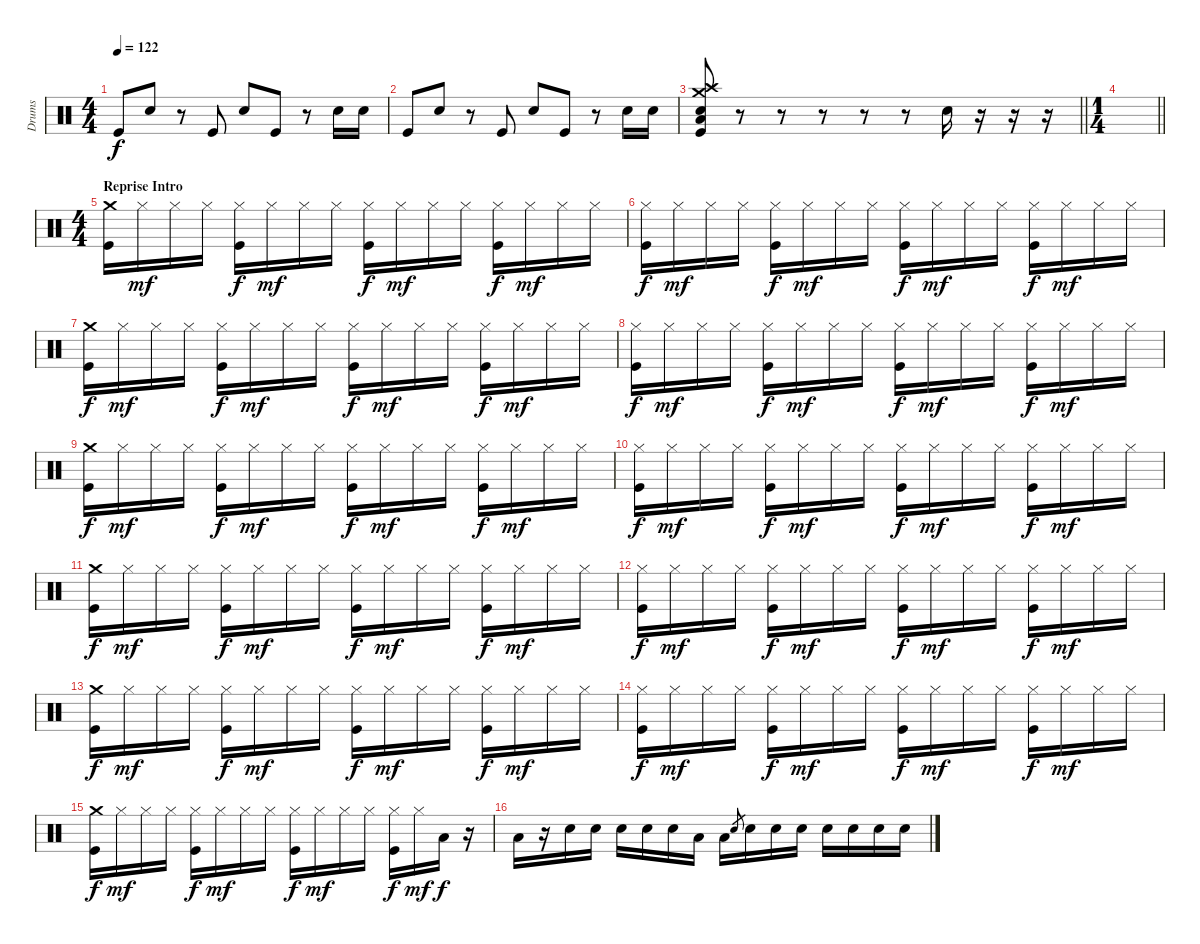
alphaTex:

\track ("Drums" "Drums") {instrument percussion}
\staff {score}
\articulation defaults
\ts (4 4)
\tempo 122
\clef neutral
\ks c "Kick (hit)".8{dy f} "Snare (hit) 2".8
r.8 "Kick (hit)".8 "Snare (hit) 2".8 "Kick (hit)".8 r.8 "Snare (hit) 2".16 "Snare (hit) 2".16 |
"Kick (hit)".8 "Snare (hit) 2".8 r.8 "Kick (hit)".8 "Snare (hit) 2".8 "Kick (hit)".8 r.8 "Snare (hit) 2".16 "Snare (hit) 2".16 |
\barLineRight lightlight
("Crash high (hit)" "Crash medium (hit)" "Snare (hit) 2" "Low Tom (hit)" "Kick (hit)").8 r.8 r.8 r.8 r.8 r.8 "Snare (hit) 2".16 r.16 r.16 r.16 |
\ts (1 4)
\barLineRight lightlight
|
\ts (4 4)
\section ("" "Reprise Intro")
("Crash medium (hit)" "Kick (hit)").16 "Hi-Hat (closed)".16{dy mf} "Hi-Hat (closed)".16 "Hi-Hat (closed)".16 ("Hi-Hat (closed)" "Kick (hit)").16{dy f} "Hi-Hat (closed)".16{dy mf} "Hi-Hat (closed)".16 "Hi-Hat (closed)".16 ("Hi-Hat (closed)" "Kick (hit)").16{dy f} "Hi-Hat (closed)".16{dy mf} "Hi-Hat (closed)".16 "Hi-Hat (closed)".16 ("Hi-Hat (closed)" "Kick (hit)").16{dy f} "Hi-Hat (closed)".16{dy mf} "Hi-Hat (closed)".16 "Hi-Hat (closed)".16 |
("Hi-Hat (closed)" "Kick (hit)").16{dy f} "Hi-Hat (closed)".16{dy mf} "Hi-Hat (closed)".16 "Hi-Hat (closed)".16 ("Hi-Hat (closed)" "Kick (hit)").16{dy f} "Hi-Hat (closed)".16{dy mf} "Hi-Hat (closed)".16 "Hi-Hat (closed)".16 ("Hi-Hat (closed)" "Kick (hit)").16{dy f} "Hi-Hat (closed)".16{dy mf} "Hi-Hat (closed)".16 "Hi-Hat (closed)".16 ("Hi-Hat (closed)" "Kick (hit)").16{dy f} "Hi-Hat (closed)".16{dy mf} "Hi-Hat (closed)".16 "Hi-Hat (closed)".16 |
("Crash medium (hit)" "Kick (hit)").16{dy f} "Hi-Hat (closed)".16{dy mf} "Hi-Hat (closed)".16 "Hi-Hat (closed)".16 ("Hi-Hat (closed)" "Kick (hit)").16{dy f} "Hi-Hat (closed)".16{dy mf} "Hi-Hat (closed)".16 "Hi-Hat (closed)".16 ("Hi-Hat (closed)" "Kick (hit)").16{dy f} "Hi-Hat (closed)".16{dy mf} "Hi-Hat (closed)".16 "Hi-Hat (closed)".16 ("Hi-Hat (closed)" "Kick (hit)").16{dy f} "Hi-Hat (closed)".16{dy mf} "Hi-Hat (closed)".16 "Hi-Hat (closed)".16 |
("Hi-Hat (closed)" "Kick (hit)").16{dy f} "Hi-Hat (closed)".16{dy mf} "Hi-Hat (closed)".16 "Hi-Hat (closed)".16 ("Hi-Hat (closed)" "Kick (hit)").16{dy f} "Hi-Hat (closed)".16{dy mf} "Hi-Hat (closed)".16 "Hi-Hat (closed)".16 ("Hi-Hat (closed)" "Kick (hit)").16{dy f} "Hi-Hat (closed)".16{dy mf} "Hi-Hat (closed)".16 "Hi-Hat (closed)".16 ("Hi-Hat (closed)" "Kick (hit)").16{dy f} "Hi-Hat (closed)".16{dy mf} "Hi-Hat (closed)".16 "Hi-Hat (closed)".16 |
("Crash medium (hit)" "Kick (hit)").16{dy f} "Hi-Hat (closed)".16{dy mf} "Hi-Hat (closed)".16 "Hi-Hat (closed)".16 ("Hi-Hat (closed)" "Kick (hit)").16{dy f} "Hi-Hat (closed)".16{dy mf} "Hi-Hat (closed)".16 "Hi-Hat (closed)".16 ("Hi-Hat (closed)" "Kick (hit)").16{dy f} "Hi-Hat (closed)".16{dy mf} "Hi-Hat (closed)".16 "Hi-Hat (closed)".16 ("Hi-Hat (closed)" "Kick (hit)").16{dy f} "Hi-Hat (closed)".16{dy mf} "Hi-Hat (closed)".16 "Hi-Hat (closed)".16 |
("Hi-Hat (closed)" "Kick (hit)").16{dy f} "Hi-Hat (closed)".16{dy mf} "Hi-Hat (closed)".16 "Hi-Hat (closed)".16 ("Hi-Hat (closed)" "Kick (hit)").16{dy f} "Hi-Hat (closed)".16{dy mf} "Hi-Hat (closed)".16 "Hi-Hat (closed)".16 ("Hi-Hat (closed)" "Kick (hit)").16{dy f} "Hi-Hat (closed)".16{dy mf} "Hi-Hat (closed)".16 "Hi-Hat (closed)".16 ("Hi-Hat (closed)" "Kick (hit)").16{dy f} "Hi-Hat (closed)".16{dy mf} "Hi-Hat (closed)".16 "Hi-Hat (closed)".16 |
("Crash medium (hit)" "Kick (hit)").16{dy f} "Hi-Hat (closed)".16{dy mf} "Hi-Hat (closed)".16 "Hi-Hat (closed)".16 ("Hi-Hat (closed)" "Kick (hit)").16{dy f} "Hi-Hat (closed)".16{dy mf} "Hi-Hat (closed)".16 "Hi-Hat (closed)".16 ("Hi-Hat (closed)" "Kick (hit)").16{dy f} "Hi-Hat (closed)".16{dy mf} "Hi-Hat (closed)".16 "Hi-Hat (closed)".16 ("Hi-Hat (closed)" "Kick (hit)").16{dy f} "Hi-Hat (closed)".16{dy mf} "Hi-Hat (closed)".16 "Hi-Hat (closed)".16 |
("Hi-Hat (closed)" "Kick (hit)").16{dy f} "Hi-Hat (closed)".16{dy mf} "Hi-Hat (closed)".16 "Hi-Hat (closed)".16 ("Hi-Hat (closed)" "Kick (hit)").16{dy f} "Hi-Hat (closed)".16{dy mf} "Hi-Hat (closed)".16 "Hi-Hat (closed)".16 ("Hi-Hat (closed)" "Kick (hit)").16{dy f} "Hi-Hat (closed)".16{dy mf} "Hi-Hat (closed)".16 "Hi-Hat (closed)".16 ("Hi-Hat (closed)" "Kick (hit)").16{dy f} "Hi-Hat (closed)".16{dy mf} "Hi-Hat (closed)".16 "Hi-Hat (closed)".16 |
("Crash medium (hit)" "Kick (hit)").16{dy f} "Hi-Hat (closed)".16{dy mf} "Hi-Hat (closed)".16 "Hi-Hat (closed)".16 ("Hi-Hat (closed)" "Kick (hit)").16{dy f} "Hi-Hat (closed)".16{dy mf} "Hi-Hat (closed)".16 "Hi-Hat (closed)".16 ("Hi-Hat (closed)" "Kick (hit)").16{dy f} "Hi-Hat (closed)".16{dy mf} "Hi-Hat (closed)".16 "Hi-Hat (closed)".16 ("Hi-Hat (closed)" "Kick (hit)").16{dy f} "Hi-Hat (closed)".16{dy mf} "Hi-Hat (closed)".16 "Hi-Hat (closed)".16 |
("Hi-Hat (closed)" "Kick (hit)").16{dy f} "Hi-Hat (closed)".16{dy mf} "Hi-Hat (closed)".16 "Hi-Hat (closed)".16 ("Hi-Hat (closed)" "Kick (hit)").16{dy f} "Hi-Hat (closed)".16{dy mf} "Hi-Hat (closed)".16 "Hi-Hat (closed)".16 ("Hi-Hat (closed)" "Kick (hit)").16{dy f} "Hi-Hat (closed)".16{dy mf} "Hi-Hat (closed)".16 "Hi-Hat (closed)".16 ("Hi-Hat (closed)" "Kick (hit)").16{dy f} "Hi-Hat (closed)".16{dy mf} "Hi-Hat (closed)".16 "Hi-Hat (closed)".16 |
("Crash medium (hit)" "Kick (hit)").16{dy f} "Hi-Hat (closed)".16{dy mf} "Hi-Hat (closed)".16 "Hi-Hat (closed)".16 ("Hi-Hat (closed)" "Kick (hit)").16{dy f} "Hi-Hat (closed)".16{dy mf} "Hi-Hat (closed)".16 "Hi-Hat (closed)".16 ("Hi-Hat (closed)" "Kick (hit)").16{dy f} "Hi-Hat (closed)".16{dy mf} "Hi-Hat (closed)".16 "Hi-Hat (closed)".16 ("Hi-Hat (closed)" "Kick (hit)").16{dy f} "Hi-Hat (closed)".16{dy mf} "Low Tom (hit)".16{dy f} r.16 |
"Low Tom (hit)".16 r.16 "Snare (hit) 2".16 "Snare (hit) 2".16 "Snare (hit) 2".16 "Snare (hit) 2".16 "Snare (hit) 2".16 "Low Tom (hit)".16 "Low Tom (hit)".16 "Snare (hit) 2".8{gr} "Snare (hit) 2".16 "Snare (hit) 2".16 "Snare (hit) 2".16 "Snare (hit) 2".16 "Snare (hit) 2".16 "Snare (hit) 2".16 "Snare (hit) 2".16
